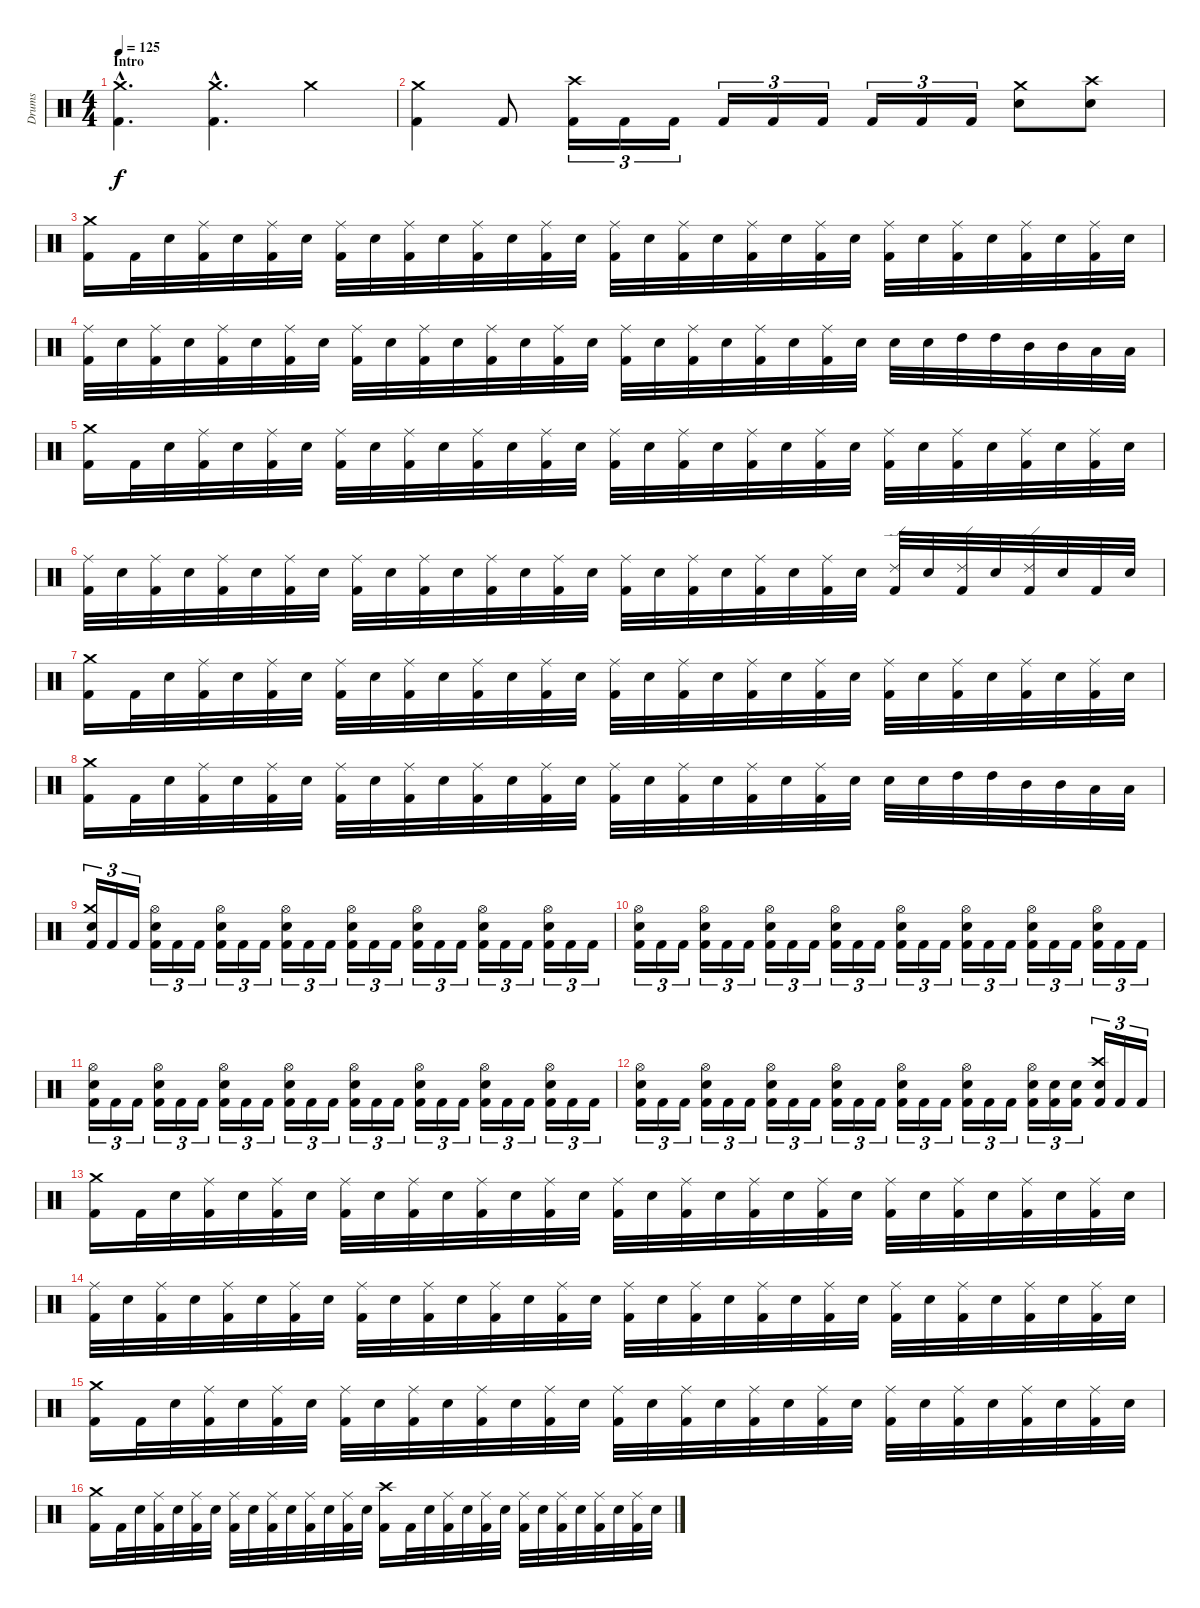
\track ("Drums" "Drums") {instrument percussion}
\staff {score}
\articulation defaults
\ts (4 4)
\section ("" "Intro")
\tempo 125
\clef neutral
\ks c
("Kick (hit) 2"{hac} "Crash medium (hit)"{hac}).4{d dy f} ("Kick (hit) 2"{hac} "Crash medium (hit)"{hac}).4{d} "Crash medium (hit)".4 |
("Kick (hit) 2" "Crash medium (hit)").4 "Kick (hit) 2".8 ("Kick (hit) 2" "Crash high (hit)").16{tu (3 2)} "Kick (hit) 2".16{tu (3 2)} "Kick (hit) 2".16{tu (3 2)} "Kick (hit) 2".16{tu (3 2)} "Kick (hit) 2".16{tu (3 2)} "Kick (hit) 2".16{tu (3 2)} "Kick (hit) 2".16{tu (3 2)} "Kick (hit) 2".16{tu (3 2)} "Kick (hit) 2".16{tu (3 2)} ("Electric Snare (hit)" "Crash medium (hit)").8 ("Electric Snare (hit)" "Crash high (hit)").8 |
("Kick (hit) 2" "Crash medium (hit)").16 "Kick (hit) 2".32 "Electric Snare (hit)".32 ("Kick (hit) 2" "Ride (middle)").32 "Electric Snare (hit)".32 ("Kick (hit) 2" "Ride (middle)").32 "Electric Snare (hit)".32 ("Kick (hit) 2" "Ride (middle)").32 "Electric Snare (hit)".32 ("Kick (hit) 2" "Ride (middle)").32 "Electric Snare (hit)".32 ("Kick (hit) 2" "Ride (middle)").32 "Electric Snare (hit)".32 ("Kick (hit) 2" "Ride (middle)").32 "Electric Snare (hit)".32 ("Kick (hit) 2" "Ride (middle)").32 "Electric Snare (hit)".32 ("Kick (hit) 2" "Ride (middle)").32 "Electric Snare (hit)".32 ("Kick (hit) 2" "Ride (middle)").32 "Electric Snare (hit)".32 ("Kick (hit) 2" "Ride (middle)").32 "Electric Snare (hit)".32 ("Kick (hit) 2" "Ride (middle)").32 "Electric Snare (hit)".32 ("Kick (hit) 2" "Ride (middle)").32 "Electric Snare (hit)".32 ("Kick (hit) 2" "Ride (middle)").32 "Electric Snare (hit)".32 ("Kick (hit) 2" "Ride (middle)").32 "Electric Snare (hit)".32 |
("Kick (hit) 2" "Ride (middle)").32 "Electric Snare (hit)".32 ("Kick (hit) 2" "Ride (middle)").32 "Electric Snare (hit)".32 ("Kick (hit) 2" "Ride (middle)").32 "Electric Snare (hit)".32 ("Kick (hit) 2" "Ride (middle)").32 "Electric Snare (hit)".32 ("Kick (hit) 2" "Ride (middle)").32 "Electric Snare (hit)".32 ("Kick (hit) 2" "Ride (middle)").32 "Electric Snare (hit)".32 ("Kick (hit) 2" "Ride (middle)").32 "Electric Snare (hit)".32 ("Kick (hit) 2" "Ride (middle)").32 "Electric Snare (hit)".32 ("Kick (hit) 2" "Ride (middle)").32 "Electric Snare (hit)".32 ("Kick (hit) 2" "Ride (middle)").32 "Electric Snare (hit)".32 ("Kick (hit) 2" "Ride (middle)").32 "Electric Snare (hit)".32 ("Kick (hit) 2" "Ride (middle)").32 "Electric Snare (hit)".32 "Electric Snare (hit)".32 "Electric Snare (hit)".32 "High Tom (hit)".32 "High Tom (hit)".32 "Mid Tom (hit)".32 "Mid Tom (hit)".32 "Low Tom (hit)".32 "Low Tom (hit)".32 |
("Kick (hit) 2" "Crash medium (hit)").16 "Kick (hit) 2".32 "Electric Snare (hit)".32 ("Kick (hit) 2" "Ride (middle)").32 "Electric Snare (hit)".32 ("Kick (hit) 2" "Ride (middle)").32 "Electric Snare (hit)".32 ("Kick (hit) 2" "Ride (middle)").32 "Electric Snare (hit)".32 ("Kick (hit) 2" "Ride (middle)").32 "Electric Snare (hit)".32 ("Kick (hit) 2" "Ride (middle)").32 "Electric Snare (hit)".32 ("Kick (hit) 2" "Ride (middle)").32 "Electric Snare (hit)".32 ("Kick (hit) 2" "Ride (middle)").32 "Electric Snare (hit)".32 ("Kick (hit) 2" "Ride (middle)").32 "Electric Snare (hit)".32 ("Kick (hit) 2" "Ride (middle)").32 "Electric Snare (hit)".32 ("Kick (hit) 2" "Ride (middle)").32 "Electric Snare (hit)".32 ("Kick (hit) 2" "Ride (middle)").32 "Electric Snare (hit)".32 ("Kick (hit) 2" "Ride (middle)").32 "Electric Snare (hit)".32 ("Kick (hit) 2" "Ride (middle)").32 "Electric Snare (hit)".32 ("Kick (hit) 2" "Ride (middle)").32 "Electric Snare (hit)".32 |
("Kick (hit) 2" "Ride (middle)").32 "Electric Snare (hit)".32 ("Kick (hit) 2" "Ride (middle)").32 "Electric Snare (hit)".32 ("Kick (hit) 2" "Ride (middle)").32 "Electric Snare (hit)".32 ("Kick (hit) 2" "Ride (middle)").32 "Electric Snare (hit)".32 ("Kick (hit) 2" "Ride (middle)").32 "Electric Snare (hit)".32 ("Kick (hit) 2" "Ride (middle)").32 "Electric Snare (hit)".32 ("Kick (hit) 2" "Ride (middle)").32 "Electric Snare (hit)".32 ("Kick (hit) 2" "Ride (middle)").32 "Electric Snare (hit)".32 ("Kick (hit) 2" "Ride (middle)").32 "Electric Snare (hit)".32 ("Kick (hit) 2" "Ride (middle)").32 "Electric Snare (hit)".32 ("Kick (hit) 2" "Ride (middle)").32 "Electric Snare (hit)".32 ("Kick (hit) 2" "Ride (middle)").32 "Electric Snare (hit)".32 ("Kick (hit) 2" "Ride (edge) 2").32 "Electric Snare (hit)".32 ("Kick (hit) 2" "Ride (edge) 2").32 "Electric Snare (hit)".32 ("Kick (hit) 2" "Ride (edge) 2").32 "Electric Snare (hit)".32 "Kick (hit) 2".32 "Electric Snare (hit)".32 |
("Kick (hit) 2" "Crash medium (hit)").16 "Kick (hit) 2".32 "Electric Snare (hit)".32 ("Kick (hit) 2" "Ride (middle)").32 "Electric Snare (hit)".32 ("Kick (hit) 2" "Ride (middle)").32 "Electric Snare (hit)".32 ("Kick (hit) 2" "Ride (middle)").32 "Electric Snare (hit)".32 ("Kick (hit) 2" "Ride (middle)").32 "Electric Snare (hit)".32 ("Kick (hit) 2" "Ride (middle)").32 "Electric Snare (hit)".32 ("Kick (hit) 2" "Ride (middle)").32 "Electric Snare (hit)".32 ("Kick (hit) 2" "Ride (middle)").32 "Electric Snare (hit)".32 ("Kick (hit) 2" "Ride (middle)").32 "Electric Snare (hit)".32 ("Kick (hit) 2" "Ride (middle)").32 "Electric Snare (hit)".32 ("Kick (hit) 2" "Ride (middle)").32 "Electric Snare (hit)".32 ("Kick (hit) 2" "Ride (middle)").32 "Electric Snare (hit)".32 ("Kick (hit) 2" "Ride (middle)").32 "Electric Snare (hit)".32 ("Kick (hit) 2" "Ride (middle)").32 "Electric Snare (hit)".32 ("Kick (hit) 2" "Ride (middle)").32 "Electric Snare (hit)".32 |
("Kick (hit) 2" "Crash medium (hit)").16 "Kick (hit) 2".32 "Electric Snare (hit)".32 ("Kick (hit) 2" "Ride (middle)").32 "Electric Snare (hit)".32 ("Kick (hit) 2" "Ride (middle)").32 "Electric Snare (hit)".32 ("Kick (hit) 2" "Ride (middle)").32 "Electric Snare (hit)".32 ("Kick (hit) 2" "Ride (middle)").32 "Electric Snare (hit)".32 ("Kick (hit) 2" "Ride (middle)").32 "Electric Snare (hit)".32 ("Kick (hit) 2" "Ride (middle)").32 "Electric Snare (hit)".32 ("Kick (hit) 2" "Ride (middle)").32 "Electric Snare (hit)".32 ("Kick (hit) 2" "Ride (middle)").32 "Electric Snare (hit)".32 ("Kick (hit) 2" "Ride (middle)").32 "Electric Snare (hit)".32 ("Kick (hit) 2" "Ride (middle)").32 "Electric Snare (hit)".32 "Electric Snare (hit)".32 "Electric Snare (hit)".32 "High Tom (hit)".32 "High Tom (hit)".32 "Mid Tom (hit)".32 "Mid Tom (hit)".32 "Low Tom (hit)".32 "Low Tom (hit)".32 |
("Kick (hit) 2" "Electric Snare (hit)" "Crash medium (hit)").16{tu (3 2)} "Kick (hit) 2".16{tu (3 2)} "Kick (hit) 2".16{tu (3 2)} ("Kick (hit) 2" "Electric Snare (hit)" "Hi-Hat (open)").16{tu (3 2)} "Kick (hit) 2".16{tu (3 2)} "Kick (hit) 2".16{tu (3 2)} ("Kick (hit) 2" "Electric Snare (hit)" "Hi-Hat (open)").16{tu (3 2)} "Kick (hit) 2".16{tu (3 2)} "Kick (hit) 2".16{tu (3 2)} ("Kick (hit) 2" "Electric Snare (hit)" "Hi-Hat (open)").16{tu (3 2)} "Kick (hit) 2".16{tu (3 2)} "Kick (hit) 2".16{tu (3 2)} ("Kick (hit) 2" "Electric Snare (hit)" "Hi-Hat (open)").16{tu (3 2)} "Kick (hit) 2".16{tu (3 2)} "Kick (hit) 2".16{tu (3 2)} ("Kick (hit) 2" "Electric Snare (hit)" "Hi-Hat (open)").16{tu (3 2)} "Kick (hit) 2".16{tu (3 2)} "Kick (hit) 2".16{tu (3 2)} ("Kick (hit) 2" "Electric Snare (hit)" "Hi-Hat (open)").16{tu (3 2)} "Kick (hit) 2".16{tu (3 2)} "Kick (hit) 2".16{tu (3 2)} ("Kick (hit) 2" "Electric Snare (hit)" "Hi-Hat (open)").16{tu (3 2)} "Kick (hit) 2".16{tu (3 2)} "Kick (hit) 2".16{tu (3 2)} |
("Kick (hit) 2" "Electric Snare (hit)" "Hi-Hat (open)").16{tu (3 2)} "Kick (hit) 2".16{tu (3 2)} "Kick (hit) 2".16{tu (3 2)} ("Kick (hit) 2" "Electric Snare (hit)" "Hi-Hat (open)").16{tu (3 2)} "Kick (hit) 2".16{tu (3 2)} "Kick (hit) 2".16{tu (3 2)} ("Kick (hit) 2" "Electric Snare (hit)" "Hi-Hat (open)").16{tu (3 2)} "Kick (hit) 2".16{tu (3 2)} "Kick (hit) 2".16{tu (3 2)} ("Kick (hit) 2" "Electric Snare (hit)" "Hi-Hat (open)").16{tu (3 2)} "Kick (hit) 2".16{tu (3 2)} "Kick (hit) 2".16{tu (3 2)} ("Kick (hit) 2" "Electric Snare (hit)" "Hi-Hat (open)").16{tu (3 2)} "Kick (hit) 2".16{tu (3 2)} "Kick (hit) 2".16{tu (3 2)} ("Kick (hit) 2" "Electric Snare (hit)" "Hi-Hat (open)").16{tu (3 2)} "Kick (hit) 2".16{tu (3 2)} "Kick (hit) 2".16{tu (3 2)} ("Kick (hit) 2" "Electric Snare (hit)" "Hi-Hat (open)").16{tu (3 2)} "Kick (hit) 2".16{tu (3 2)} "Kick (hit) 2".16{tu (3 2)} ("Kick (hit) 2" "Electric Snare (hit)" "Hi-Hat (open)").16{tu (3 2)} "Kick (hit) 2".16{tu (3 2)} "Kick (hit) 2".16{tu (3 2)} |
("Kick (hit) 2" "Electric Snare (hit)" "Hi-Hat (open)").16{tu (3 2)} "Kick (hit) 2".16{tu (3 2)} "Kick (hit) 2".16{tu (3 2)} ("Kick (hit) 2" "Electric Snare (hit)" "Hi-Hat (open)").16{tu (3 2)} "Kick (hit) 2".16{tu (3 2)} "Kick (hit) 2".16{tu (3 2)} ("Kick (hit) 2" "Electric Snare (hit)" "Hi-Hat (open)").16{tu (3 2)} "Kick (hit) 2".16{tu (3 2)} "Kick (hit) 2".16{tu (3 2)} ("Kick (hit) 2" "Electric Snare (hit)" "Hi-Hat (open)").16{tu (3 2)} "Kick (hit) 2".16{tu (3 2)} "Kick (hit) 2".16{tu (3 2)} ("Kick (hit) 2" "Electric Snare (hit)" "Hi-Hat (open)").16{tu (3 2)} "Kick (hit) 2".16{tu (3 2)} "Kick (hit) 2".16{tu (3 2)} ("Kick (hit) 2" "Electric Snare (hit)" "Hi-Hat (open)").16{tu (3 2)} "Kick (hit) 2".16{tu (3 2)} "Kick (hit) 2".16{tu (3 2)} ("Kick (hit) 2" "Electric Snare (hit)" "Hi-Hat (open)").16{tu (3 2)} "Kick (hit) 2".16{tu (3 2)} "Kick (hit) 2".16{tu (3 2)} ("Kick (hit) 2" "Electric Snare (hit)" "Hi-Hat (open)").16{tu (3 2)} "Kick (hit) 2".16{tu (3 2)} "Kick (hit) 2".16{tu (3 2)} |
("Kick (hit) 2" "Electric Snare (hit)" "Hi-Hat (open)").16{tu (3 2)} "Kick (hit) 2".16{tu (3 2)} "Kick (hit) 2".16{tu (3 2)} ("Kick (hit) 2" "Electric Snare (hit)" "Hi-Hat (open)").16{tu (3 2)} "Kick (hit) 2".16{tu (3 2)} "Kick (hit) 2".16{tu (3 2)} ("Kick (hit) 2" "Electric Snare (hit)" "Hi-Hat (open)").16{tu (3 2)} "Kick (hit) 2".16{tu (3 2)} "Kick (hit) 2".16{tu (3 2)} ("Kick (hit) 2" "Electric Snare (hit)" "Hi-Hat (open)").16{tu (3 2)} "Kick (hit) 2".16{tu (3 2)} "Kick (hit) 2".16{tu (3 2)} ("Kick (hit) 2" "Electric Snare (hit)" "Hi-Hat (open)").16{tu (3 2)} "Kick (hit) 2".16{tu (3 2)} "Kick (hit) 2".16{tu (3 2)} ("Kick (hit) 2" "Electric Snare (hit)" "Hi-Hat (open)").16{tu (3 2)} "Kick (hit) 2".16{tu (3 2)} "Kick (hit) 2".16{tu (3 2)} ("Kick (hit) 2" "Electric Snare (hit)" "Hi-Hat (open)").16{tu (3 2)} ("Kick (hit) 2" "Electric Snare (hit)").16{tu (3 2)} ("Kick (hit) 2" "Electric Snare (hit)").16{tu (3 2)} ("Kick (hit) 2" "Electric Snare (hit)" "Crash high (hit)").16{tu (3 2)} "Kick (hit) 2".16{tu (3 2)} "Kick (hit) 2".16{tu (3 2)} |
("Kick (hit) 2" "Crash medium (hit)").16 "Kick (hit) 2".32 "Electric Snare (hit)".32 ("Kick (hit) 2" "Ride (middle)").32 "Electric Snare (hit)".32 ("Kick (hit) 2" "Ride (middle)").32 "Electric Snare (hit)".32 ("Kick (hit) 2" "Ride (middle)").32 "Electric Snare (hit)".32 ("Kick (hit) 2" "Ride (middle)").32 "Electric Snare (hit)".32 ("Kick (hit) 2" "Ride (middle)").32 "Electric Snare (hit)".32 ("Kick (hit) 2" "Ride (middle)").32 "Electric Snare (hit)".32 ("Kick (hit) 2" "Ride (middle)").32 "Electric Snare (hit)".32 ("Kick (hit) 2" "Ride (middle)").32 "Electric Snare (hit)".32 ("Kick (hit) 2" "Ride (middle)").32 "Electric Snare (hit)".32 ("Kick (hit) 2" "Ride (middle)").32 "Electric Snare (hit)".32 ("Kick (hit) 2" "Ride (middle)").32 "Electric Snare (hit)".32 ("Kick (hit) 2" "Ride (middle)").32 "Electric Snare (hit)".32 ("Kick (hit) 2" "Ride (middle)").32 "Electric Snare (hit)".32 ("Kick (hit) 2" "Ride (middle)").32 "Electric Snare (hit)".32 |
("Kick (hit) 2" "Ride (middle)").32 "Electric Snare (hit)".32 ("Kick (hit) 2" "Ride (middle)").32 "Electric Snare (hit)".32 ("Kick (hit) 2" "Ride (middle)").32 "Electric Snare (hit)".32 ("Kick (hit) 2" "Ride (middle)").32 "Electric Snare (hit)".32 ("Kick (hit) 2" "Ride (middle)").32 "Electric Snare (hit)".32 ("Kick (hit) 2" "Ride (middle)").32 "Electric Snare (hit)".32 ("Kick (hit) 2" "Ride (middle)").32 "Electric Snare (hit)".32 ("Kick (hit) 2" "Ride (middle)").32 "Electric Snare (hit)".32 ("Kick (hit) 2" "Ride (middle)").32 "Electric Snare (hit)".32 ("Kick (hit) 2" "Ride (middle)").32 "Electric Snare (hit)".32 ("Kick (hit) 2" "Ride (middle)").32 "Electric Snare (hit)".32 ("Kick (hit) 2" "Ride (middle)").32 "Electric Snare (hit)".32 ("Kick (hit) 2" "Ride (middle)").32 "Electric Snare (hit)".32 ("Kick (hit) 2" "Ride (middle)").32 "Electric Snare (hit)".32 ("Kick (hit) 2" "Ride (middle)").32 "Electric Snare (hit)".32 ("Kick (hit) 2" "Ride (middle)").32 "Electric Snare (hit)".32 |
("Kick (hit) 2" "Crash medium (hit)").16 "Kick (hit) 2".32 "Electric Snare (hit)".32 ("Kick (hit) 2" "Ride (middle)").32 "Electric Snare (hit)".32 ("Kick (hit) 2" "Ride (middle)").32 "Electric Snare (hit)".32 ("Kick (hit) 2" "Ride (middle)").32 "Electric Snare (hit)".32 ("Kick (hit) 2" "Ride (middle)").32 "Electric Snare (hit)".32 ("Kick (hit) 2" "Ride (middle)").32 "Electric Snare (hit)".32 ("Kick (hit) 2" "Ride (middle)").32 "Electric Snare (hit)".32 ("Kick (hit) 2" "Ride (middle)").32 "Electric Snare (hit)".32 ("Kick (hit) 2" "Ride (middle)").32 "Electric Snare (hit)".32 ("Kick (hit) 2" "Ride (middle)").32 "Electric Snare (hit)".32 ("Kick (hit) 2" "Ride (middle)").32 "Electric Snare (hit)".32 ("Kick (hit) 2" "Ride (middle)").32 "Electric Snare (hit)".32 ("Kick (hit) 2" "Ride (middle)").32 "Electric Snare (hit)".32 ("Kick (hit) 2" "Ride (middle)").32 "Electric Snare (hit)".32 ("Kick (hit) 2" "Ride (middle)").32 "Electric Snare (hit)".32 |
("Kick (hit) 2" "Crash medium (hit)").16 "Kick (hit) 2".32 "Electric Snare (hit)".32 ("Kick (hit) 2" "Ride (middle)").32 "Electric Snare (hit)".32 ("Kick (hit) 2" "Ride (middle)").32 "Electric Snare (hit)".32 ("Kick (hit) 2" "Ride (middle)").32 "Electric Snare (hit)".32 ("Kick (hit) 2" "Ride (middle)").32 "Electric Snare (hit)".32 ("Kick (hit) 2" "Ride (middle)").32 "Electric Snare (hit)".32 ("Kick (hit) 2" "Ride (middle)").32 "Electric Snare (hit)".32 ("Kick (hit) 2" "Crash high (hit)").16 "Kick (hit) 2".32 "Electric Snare (hit)".32 ("Kick (hit) 2" "Ride (middle)").32 "Electric Snare (hit)".32 ("Kick (hit) 2" "Ride (middle)").32 "Electric Snare (hit)".32 ("Kick (hit) 2" "Ride (middle)").32 "Electric Snare (hit)".32 ("Kick (hit) 2" "Ride (middle)").32 "Electric Snare (hit)".32 ("Kick (hit) 2" "Ride (middle)").32 "Electric Snare (hit)".32 ("Kick (hit) 2" "Ride (middle)").32 "Electric Snare (hit)".32
